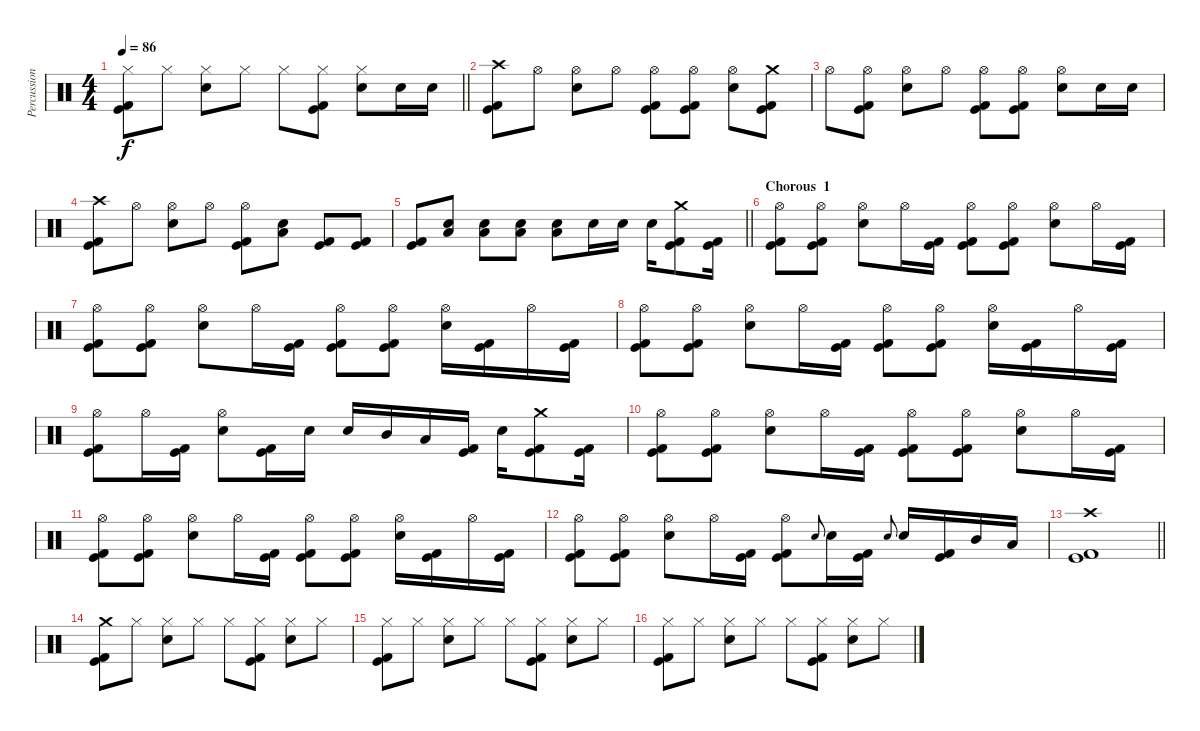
\track ("Percussion" "Percussion") {instrument percussion}
\staff {score}
\articulation defaults
\ts (4 4)
\tempo 86
\clef neutral
\barLineRight lightlight
\ks c
("Hi-Hat (closed)" "Kick (hit)" "Kick (hit) 2").8{dy f} "Hi-Hat (closed)".8 ("Hi-Hat (closed)" "Electric Snare (hit)").8 "Hi-Hat (closed)".8 "Hi-Hat (closed)".8 ("Hi-Hat (closed)" "Kick (hit)" "Kick (hit) 2").8 ("Hi-Hat (closed)" "Electric Snare (hit)").8 "Electric Snare (hit)".16 "Electric Snare (hit)".16 |
\section ("" "")
("Crash high (hit)" "Kick (hit)" "Kick (hit) 2").8 "Hi-Hat (open)".8 ("Hi-Hat (open)" "Electric Snare (hit)").8 "Hi-Hat (open)".8 ("Hi-Hat (open)" "Kick (hit)" "Kick (hit) 2").8 ("Hi-Hat (open)" "Kick (hit)" "Kick (hit) 2").8 ("Hi-Hat (open)" "Electric Snare (hit)").8 ("Crash medium (hit)" "Kick (hit)" "Kick (hit) 2").8 |
"Hi-Hat (open)".8 ("Hi-Hat (open)" "Kick (hit)" "Kick (hit) 2").8 ("Hi-Hat (open)" "Electric Snare (hit)").8 "Hi-Hat (open)".8 ("Hi-Hat (open)" "Kick (hit)" "Kick (hit) 2").8 ("Hi-Hat (open)" "Kick (hit)" "Kick (hit) 2").8 ("Hi-Hat (open)" "Electric Snare (hit)").8 "Electric Snare (hit)".16 "Electric Snare (hit)".16 |
("Crash high (hit)" "Kick (hit)" "Kick (hit) 2").8 "Hi-Hat (open)".8 ("Hi-Hat (open)" "Electric Snare (hit)").8 "Hi-Hat (open)".8 ("Hi-Hat (open)" "Kick (hit)" "Kick (hit) 2").8 ("Electric Snare (hit)" "Low Floor Tom (hit)").8 ("Kick (hit)" "Kick (hit) 2").8 ("Kick (hit)" "Kick (hit) 2").8 |
\barLineRight lightlight
("Kick (hit)" "Kick (hit) 2").8 ("Electric Snare (hit)" "Low Floor Tom (hit)").8 ("Electric Snare (hit)" "Low Floor Tom (hit)").8 ("Electric Snare (hit)" "Low Floor Tom (hit)").8 ("Electric Snare (hit)" "Low Floor Tom (hit)").8 "Electric Snare (hit)".16 "Electric Snare (hit)".16 "Electric Snare (hit)".16 ("Crash medium (hit)" "Kick (hit)" "Kick (hit) 2").8 ("Kick (hit)" "Kick (hit) 2").16 |
\section ("" "Chorous  1")
("Hi-Hat (open)" "Kick (hit)" "Kick (hit) 2").8 ("Hi-Hat (open)" "Kick (hit)" "Kick (hit) 2").8 ("Hi-Hat (open)" "Electric Snare (hit)").8 "Hi-Hat (open)".16 ("Kick (hit)" "Kick (hit) 2").16 ("Hi-Hat (open)" "Kick (hit)" "Kick (hit) 2").8 ("Hi-Hat (open)" "Kick (hit)" "Kick (hit) 2").8 ("Hi-Hat (open)" "Electric Snare (hit)").8 "Hi-Hat (open)".16 ("Kick (hit)" "Kick (hit) 2").16 |
("Hi-Hat (open)" "Kick (hit)" "Kick (hit) 2").8 ("Hi-Hat (open)" "Kick (hit)" "Kick (hit) 2").8 ("Hi-Hat (open)" "Electric Snare (hit)").8 "Hi-Hat (open)".16 ("Kick (hit)" "Kick (hit) 2").16 ("Hi-Hat (open)" "Kick (hit)" "Kick (hit) 2").8 ("Hi-Hat (open)" "Kick (hit)" "Kick (hit) 2").8 ("Hi-Hat (open)" "Electric Snare (hit)").16 ("Kick (hit)" "Kick (hit) 2").16 "Hi-Hat (open)".16 ("Kick (hit)" "Kick (hit) 2").16 |
("Hi-Hat (open)" "Kick (hit)" "Kick (hit) 2").8 ("Hi-Hat (open)" "Kick (hit)" "Kick (hit) 2").8 ("Hi-Hat (open)" "Electric Snare (hit)").8 "Hi-Hat (open)".16 ("Kick (hit)" "Kick (hit) 2").16 ("Hi-Hat (open)" "Kick (hit)" "Kick (hit) 2").8 ("Hi-Hat (open)" "Kick (hit)" "Kick (hit) 2").8 ("Hi-Hat (open)" "Electric Snare (hit)").16 ("Kick (hit)" "Kick (hit) 2").16 "Hi-Hat (open)".16 ("Kick (hit)" "Kick (hit) 2").16 |
("Hi-Hat (open)" "Kick (hit)" "Kick (hit) 2").8 "Hi-Hat (open)".16 ("Kick (hit)" "Kick (hit) 2").16 ("Hi-Hat (open)" "Electric Snare (hit)").8 ("Kick (hit)" "Kick (hit) 2").16 "Electric Snare (hit)".16 "Electric Snare (hit)".16 "Mid Tom (hit)".16 "Low Tom (hit)".16 ("Kick (hit)" "Kick (hit) 2").16 "Electric Snare (hit)".16 ("Crash medium (hit)" "Kick (hit)" "Kick (hit) 2").8 ("Kick (hit)" "Kick (hit) 2").16 |
("Hi-Hat (open)" "Kick (hit)" "Kick (hit) 2").8 ("Hi-Hat (open)" "Kick (hit)" "Kick (hit) 2").8 ("Hi-Hat (open)" "Electric Snare (hit)").8 "Hi-Hat (open)".16 ("Kick (hit)" "Kick (hit) 2").16 ("Hi-Hat (open)" "Kick (hit)" "Kick (hit) 2").8 ("Hi-Hat (open)" "Kick (hit)" "Kick (hit) 2").8 ("Hi-Hat (open)" "Electric Snare (hit)").8 "Hi-Hat (open)".16 ("Kick (hit)" "Kick (hit) 2").16 |
("Hi-Hat (open)" "Kick (hit)" "Kick (hit) 2").8 ("Hi-Hat (open)" "Kick (hit)" "Kick (hit) 2").8 ("Hi-Hat (open)" "Electric Snare (hit)").8 "Hi-Hat (open)".16 ("Kick (hit)" "Kick (hit) 2").16 ("Hi-Hat (open)" "Kick (hit)" "Kick (hit) 2").8 ("Hi-Hat (open)" "Kick (hit)" "Kick (hit) 2").8 ("Hi-Hat (open)" "Electric Snare (hit)").16 ("Kick (hit)" "Kick (hit) 2").16 "Hi-Hat (open)".16 ("Kick (hit)" "Kick (hit) 2").16 |
("Hi-Hat (open)" "Kick (hit)" "Kick (hit) 2").8 ("Hi-Hat (open)" "Kick (hit)" "Kick (hit) 2").8 ("Hi-Hat (open)" "Electric Snare (hit)").8 "Hi-Hat (open)".16 ("Kick (hit)" "Kick (hit) 2").16 ("Hi-Hat (open)" "Kick (hit)" "Kick (hit) 2").8 "Electric Snare (hit)".8{gr onbeat} "Electric Snare (hit)".16 ("Kick (hit)" "Kick (hit) 2").16 "Electric Snare (hit)".8{gr onbeat} "Electric Snare (hit)".16 ("Kick (hit)" "Kick (hit) 2").16 "Mid Tom (hit)".16 "Low Tom (hit)".16 |
\barLineRight lightlight
("Crash high (hit)" "Kick (hit)" "Kick (hit) 2").1 |
\section ("" "")
("Crash medium (hit)" "Kick (hit)" "Kick (hit) 2").8 "Hi-Hat (closed)".8 ("Hi-Hat (closed)" "Electric Snare (hit)").8 "Hi-Hat (closed)".8 "Hi-Hat (closed)".8 ("Hi-Hat (closed)" "Kick (hit)" "Kick (hit) 2").8 ("Hi-Hat (closed)" "Electric Snare (hit)").8 "Hi-Hat (closed)".8 |
("Hi-Hat (closed)" "Kick (hit)" "Kick (hit) 2").8 "Hi-Hat (closed)".8 ("Hi-Hat (closed)" "Electric Snare (hit)").8 "Hi-Hat (closed)".8 "Hi-Hat (closed)".8 ("Hi-Hat (closed)" "Kick (hit)" "Kick (hit) 2").8 ("Hi-Hat (closed)" "Electric Snare (hit)").8 "Hi-Hat (closed)".8 |
("Hi-Hat (closed)" "Kick (hit)" "Kick (hit) 2").8 "Hi-Hat (closed)".8 ("Hi-Hat (closed)" "Electric Snare (hit)").8 "Hi-Hat (closed)".8 "Hi-Hat (closed)".8 ("Hi-Hat (closed)" "Kick (hit)" "Kick (hit) 2").8 ("Hi-Hat (closed)" "Electric Snare (hit)").8 "Hi-Hat (closed)".8
